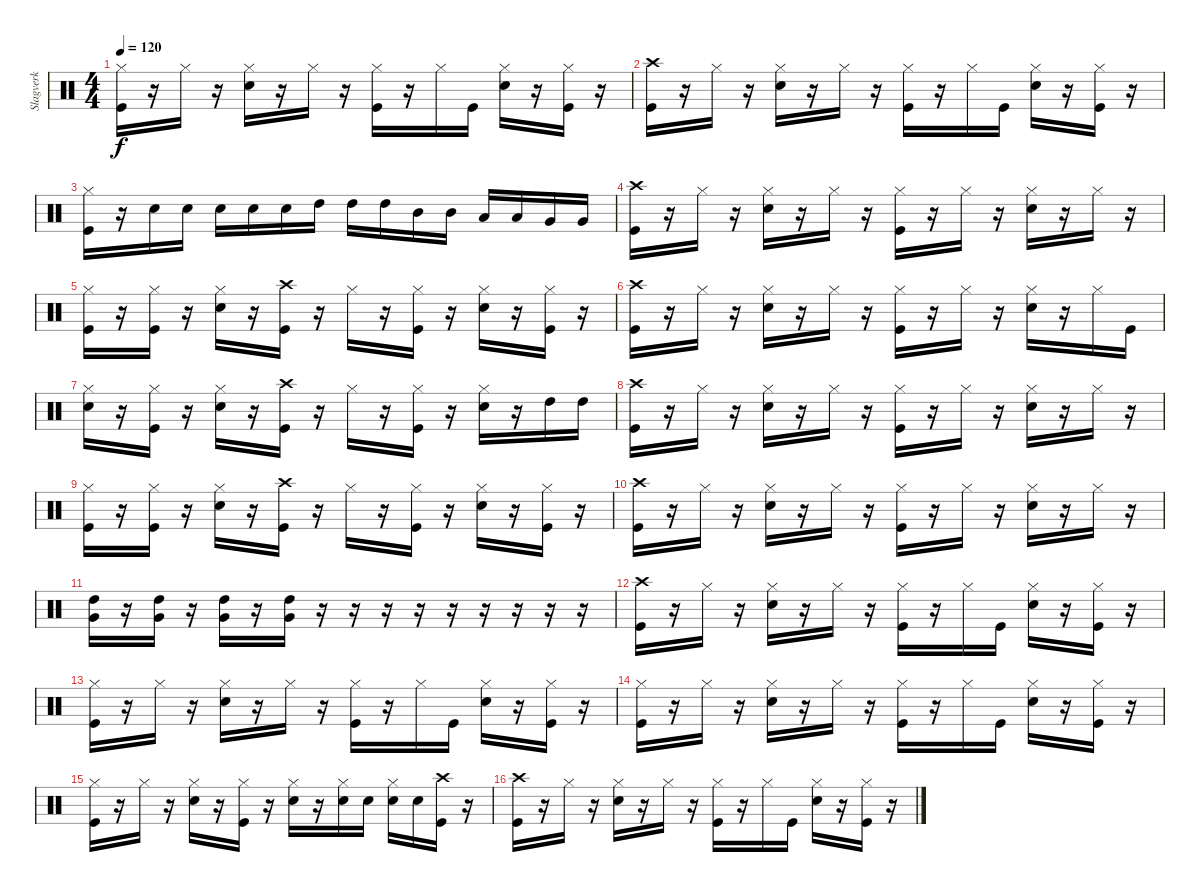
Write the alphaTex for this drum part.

\track ("Slagverk" "Slagverk") {instrument percussion}
\staff {score}
\articulation defaults
\ts (4 4)
\tempo 120
\clef neutral
\ks c
("Hi-Hat (closed)" "Kick (hit)").16{dy f} r.16 "Hi-Hat (closed)".16 r.16 ("Hi-Hat (closed)" "Snare (hit) 2").16 r.16 "Hi-Hat (closed)".16 r.16 ("Hi-Hat (closed)" "Kick (hit)").16 r.16 "Hi-Hat (closed)".16 "Kick (hit)".16 ("Hi-Hat (closed)" "Snare (hit) 2").16 r.16 ("Hi-Hat (closed)" "Kick (hit)").16 r.16 |
("Crash high (hit)" "Kick (hit)").16 r.16 "Hi-Hat (closed)".16 r.16 ("Hi-Hat (closed)" "Snare (hit) 2").16 r.16 "Hi-Hat (closed)".16 r.16 ("Hi-Hat (closed)" "Kick (hit)").16 r.16 "Hi-Hat (closed)".16 "Kick (hit)".16 ("Hi-Hat (closed)" "Snare (hit) 2").16 r.16 ("Hi-Hat (closed)" "Kick (hit)").16 r.16 |
("Hi-Hat (closed)" "Kick (hit)").16 r.16 "Snare (hit) 2".16 "Snare (hit) 2".16 "Snare (hit) 2".16 "Snare (hit) 2".16 "Snare (hit) 2".16 "High Tom (hit)".16 "High Tom (hit)".16 "High Tom (hit)".16 "Mid Tom (hit)".16 "Mid Tom (hit)".16 "Low Tom (hit)".16 "Low Tom (hit)".16 "Very Low Tom (hit)".16 "Very Low Tom (hit)".16 |
("Crash high (hit)" "Kick (hit)").16 r.16 "Hi-Hat (closed)".16 r.16 ("Hi-Hat (closed)" "Snare (hit) 2").16 r.16 "Hi-Hat (closed)".16 r.16 ("Hi-Hat (closed)" "Kick (hit)").16 r.16 "Hi-Hat (closed)".16 r.16 ("Hi-Hat (closed)" "Snare (hit) 2").16 r.16 "Hi-Hat (closed)".16 r.16 |
("Hi-Hat (closed)" "Kick (hit)").16 r.16 ("Hi-Hat (closed)" "Kick (hit)").16 r.16 ("Hi-Hat (closed)" "Snare (hit) 2").16 r.16 ("Crash high (hit)" "Kick (hit)").16 r.16 "Hi-Hat (closed)".16 r.16 ("Hi-Hat (closed)" "Kick (hit)").16 r.16 ("Hi-Hat (closed)" "Snare (hit) 2").16 r.16 ("Hi-Hat (closed)" "Kick (hit)").16 r.16 |
("Crash high (hit)" "Kick (hit)").16 r.16 "Hi-Hat (closed)".16 r.16 ("Hi-Hat (closed)" "Snare (hit) 2").16 r.16 "Hi-Hat (closed)".16 r.16 ("Hi-Hat (closed)" "Kick (hit)").16 r.16 "Hi-Hat (closed)".16 r.16 ("Hi-Hat (closed)" "Snare (hit) 2").16 r.16 "Hi-Hat (closed)".16 "Kick (hit)".16 |
("Hi-Hat (closed)" "Snare (hit) 2").16 r.16 ("Hi-Hat (closed)" "Kick (hit)").16 r.16 ("Hi-Hat (closed)" "Snare (hit) 2").16 r.16 ("Crash high (hit)" "Kick (hit)").16 r.16 "Hi-Hat (closed)".16 r.16 ("Hi-Hat (closed)" "Kick (hit)").16 r.16 ("Hi-Hat (closed)" "Snare (hit) 2").16 r.16 "High Tom (hit)".16 "High Tom (hit)".16 |
("Crash high (hit)" "Kick (hit)").16 r.16 "Hi-Hat (closed)".16 r.16 ("Hi-Hat (closed)" "Snare (hit) 2").16 r.16 "Hi-Hat (closed)".16 r.16 ("Hi-Hat (closed)" "Kick (hit)").16 r.16 "Hi-Hat (closed)".16 r.16 ("Hi-Hat (closed)" "Snare (hit) 2").16 r.16 "Hi-Hat (closed)".16 r.16 |
("Hi-Hat (closed)" "Kick (hit)").16 r.16 ("Hi-Hat (closed)" "Kick (hit)").16 r.16 ("Hi-Hat (closed)" "Snare (hit) 2").16 r.16 ("Crash high (hit)" "Kick (hit)").16 r.16 "Hi-Hat (closed)".16 r.16 ("Hi-Hat (closed)" "Kick (hit)").16 r.16 ("Hi-Hat (closed)" "Snare (hit) 2").16 r.16 ("Hi-Hat (closed)" "Kick (hit)").16 r.16 |
("Crash high (hit)" "Kick (hit)").16 r.16 "Hi-Hat (closed)".16 r.16 ("Hi-Hat (closed)" "Snare (hit) 2").16 r.16 "Hi-Hat (closed)".16 r.16 ("Hi-Hat (closed)" "Kick (hit)").16 r.16 "Hi-Hat (closed)".16 r.16 ("Hi-Hat (closed)" "Snare (hit) 2").16 r.16 "Hi-Hat (closed)".16 r.16 |
("Very Low Tom (hit)" "High Tom (hit)").16 r.16 ("Very Low Tom (hit)" "High Tom (hit)").16 r.16 ("Very Low Tom (hit)" "High Tom (hit)").16 r.16 ("Very Low Tom (hit)" "High Tom (hit)").16 r.16 r.16 r.16 r.16 r.16 r.16 r.16 r.16 r.16 |
("Crash high (hit)" "Kick (hit)").16 r.16 "Hi-Hat (closed)".16 r.16 ("Hi-Hat (closed)" "Snare (hit) 2").16 r.16 "Hi-Hat (closed)".16 r.16 ("Hi-Hat (closed)" "Kick (hit)").16 r.16 "Hi-Hat (closed)".16 "Kick (hit)".16 ("Hi-Hat (closed)" "Snare (hit) 2").16 r.16 ("Hi-Hat (closed)" "Kick (hit)").16 r.16 |
("Hi-Hat (closed)" "Kick (hit)").16 r.16 "Hi-Hat (closed)".16 r.16 ("Hi-Hat (closed)" "Snare (hit) 2").16 r.16 "Hi-Hat (closed)".16 r.16 ("Hi-Hat (closed)" "Kick (hit)").16 r.16 "Hi-Hat (closed)".16 "Kick (hit)".16 ("Hi-Hat (closed)" "Snare (hit) 2").16 r.16 ("Hi-Hat (closed)" "Kick (hit)").16 r.16 |
("Hi-Hat (closed)" "Kick (hit)").16 r.16 "Hi-Hat (closed)".16 r.16 ("Hi-Hat (closed)" "Snare (hit) 2").16 r.16 "Hi-Hat (closed)".16 r.16 ("Hi-Hat (closed)" "Kick (hit)").16 r.16 "Hi-Hat (closed)".16 "Kick (hit)".16 ("Hi-Hat (closed)" "Snare (hit) 2").16 r.16 ("Hi-Hat (closed)" "Kick (hit)").16 r.16 |
("Hi-Hat (closed)" "Kick (hit)").16 r.16 "Hi-Hat (closed)".16 r.16 ("Hi-Hat (closed)" "Snare (hit) 2").16 r.16 ("Hi-Hat (closed)" "Kick (hit)").16 r.16 ("Hi-Hat (closed)" "Snare (hit) 2").16 r.16 ("Hi-Hat (closed)" "Snare (hit) 2").16 "Snare (hit) 2".16 ("Hi-Hat (closed)" "Snare (hit) 2").16 "Snare (hit) 2".16 ("Crash high (hit)" "Kick (hit)").16 r.16 |
("Crash high (hit)" "Kick (hit)").16 r.16 "Hi-Hat (closed)".16 r.16 ("Hi-Hat (closed)" "Snare (hit) 2").16 r.16 "Hi-Hat (closed)".16 r.16 ("Hi-Hat (closed)" "Kick (hit)").16 r.16 "Hi-Hat (closed)".16 "Kick (hit)".16 ("Hi-Hat (closed)" "Snare (hit) 2").16 r.16 ("Hi-Hat (closed)" "Kick (hit)").16 r.16
